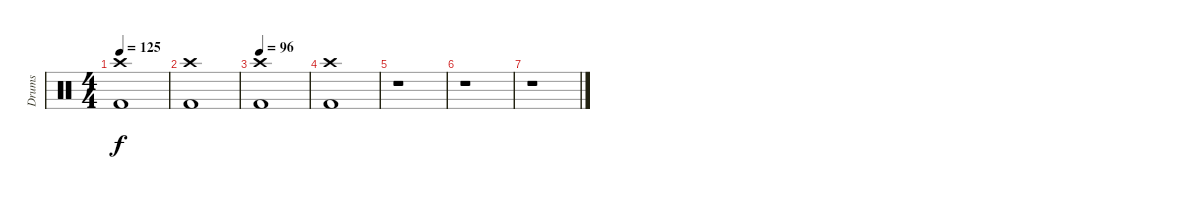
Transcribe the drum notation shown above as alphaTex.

\track ("Drums" "Drums") {instrument percussion}
\staff {score}
\articulation defaults
\ts (4 4)
\tempo 125
\clef neutral
\ks c
("Crash high (hit)" "Kick (hit) 2").1{dy f} |
("Crash high (hit)" "Kick (hit) 2").1 |
\tempo 96
("Crash high (hit)" "Kick (hit) 2").1 |
("Crash high (hit)" "Kick (hit) 2").1 |
r.1 |
r.1 |
r.1
